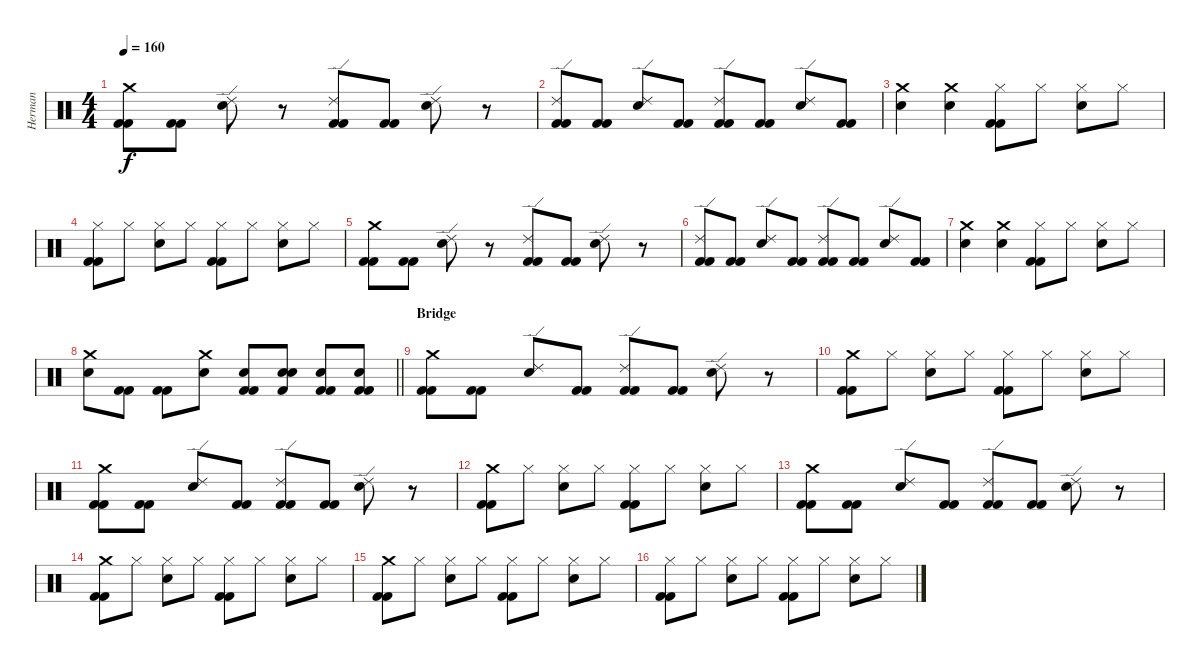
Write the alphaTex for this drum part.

\track ("Herman" "Herman") {instrument percussion}
\staff {score}
\articulation defaults
\ts (4 4)
\tempo 160
\clef neutral
\ks c
("Crash medium (hit)" "Kick (hit) 2" "Kick (hit) 2").8{dy f} ("Kick (hit) 2" "Kick (hit) 2").8 ("Electric Snare (hit)" "Ride (edge) 2").8 r.8 ("Ride (edge) 2" "Kick (hit) 2" "Kick (hit) 2").8 ("Kick (hit) 2" "Kick (hit) 2").8 ("Electric Snare (hit)" "Ride (edge) 2").8 r.8 |
("Kick (hit) 2" "Kick (hit) 2" "Ride (edge) 2").8 ("Kick (hit) 2" "Kick (hit) 2").8 ("Electric Snare (hit)" "Ride (edge) 2").8 ("Kick (hit) 2" "Kick (hit) 2").8 ("Kick (hit) 2" "Kick (hit) 2" "Ride (edge) 2").8 ("Kick (hit) 2" "Kick (hit) 2").8 ("Electric Snare (hit)" "Ride (edge) 2").8 ("Kick (hit) 2" "Kick (hit) 2").8 |
("Crash medium (hit)" "Electric Snare (hit)").4 ("Crash medium (hit)" "Electric Snare (hit)").4 ("Hi-Hat (closed)" "Kick (hit) 2" "Kick (hit) 2").8 "Hi-Hat (closed)".8 ("Electric Snare (hit)" "Hi-Hat (closed)").8 "Hi-Hat (closed)".8 |
("Kick (hit) 2" "Kick (hit) 2" "Hi-Hat (closed)").8 "Hi-Hat (closed)".8 ("Hi-Hat (closed)" "Electric Snare (hit)").8 "Hi-Hat (closed)".8 ("Hi-Hat (closed)" "Kick (hit) 2" "Kick (hit) 2").8 "Hi-Hat (closed)".8 ("Electric Snare (hit)" "Hi-Hat (closed)").8 "Hi-Hat (closed)".8 |
("Crash medium (hit)" "Kick (hit) 2" "Kick (hit) 2").8 ("Kick (hit) 2" "Kick (hit) 2").8 ("Electric Snare (hit)" "Ride (edge) 2").8 r.8 ("Ride (edge) 2" "Kick (hit) 2" "Kick (hit) 2").8 ("Kick (hit) 2" "Kick (hit) 2").8 ("Electric Snare (hit)" "Ride (edge) 2").8 r.8 |
("Kick (hit) 2" "Kick (hit) 2" "Ride (edge) 2").8 ("Kick (hit) 2" "Kick (hit) 2").8 ("Electric Snare (hit)" "Ride (edge) 2").8 ("Kick (hit) 2" "Kick (hit) 2").8 ("Kick (hit) 2" "Kick (hit) 2" "Ride (edge) 2").8 ("Kick (hit) 2" "Kick (hit) 2").8 ("Electric Snare (hit)" "Ride (edge) 2").8 ("Kick (hit) 2" "Kick (hit) 2").8 |
("Crash medium (hit)" "Electric Snare (hit)").4 ("Crash medium (hit)" "Electric Snare (hit)").4 ("Hi-Hat (closed)" "Kick (hit) 2" "Kick (hit) 2").8 "Hi-Hat (closed)".8 ("Electric Snare (hit)" "Hi-Hat (closed)").8 "Hi-Hat (closed)".8 |
\barLineRight lightlight
("Crash medium (hit)" "Electric Snare (hit)").8 ("Kick (hit) 2" "Kick (hit) 2").8 ("Kick (hit) 2" "Kick (hit) 2").8 ("Crash medium (hit)" "Electric Snare (hit)").8 ("Kick (hit) 2" "Electric Snare (hit)" "Kick (hit) 2").8 ("Electric Snare (hit)" "Electric Snare (hit)" "Kick (hit) 2").8 ("Kick (hit) 2" "Kick (hit) 2" "Electric Snare (hit)").8 ("Electric Snare (hit)" "Kick (hit) 2" "Kick (hit) 2").8 |
\section ("" "Bridge")
("Crash medium (hit)" "Kick (hit) 2" "Kick (hit) 2").8 ("Kick (hit) 2" "Kick (hit) 2").8 ("Ride (edge) 2" "Electric Snare (hit)").8 ("Kick (hit) 2" "Kick (hit) 2").8 ("Ride (edge) 2" "Kick (hit) 2" "Kick (hit) 2").8 ("Kick (hit) 2" "Kick (hit) 2").8 ("Ride (edge) 2" "Electric Snare (hit)").8 r.8 |
("Kick (hit) 2" "Kick (hit) 2" "Crash medium (hit)").8 "Hi-Hat (closed)".8 ("Hi-Hat (closed)" "Electric Snare (hit)").8 "Hi-Hat (closed)".8 ("Kick (hit) 2" "Kick (hit) 2" "Hi-Hat (closed)").8 "Hi-Hat (closed)".8 ("Hi-Hat (closed)" "Electric Snare (hit)").8 "Hi-Hat (closed)".8 |
("Crash medium (hit)" "Kick (hit) 2" "Kick (hit) 2").8 ("Kick (hit) 2" "Kick (hit) 2").8 ("Ride (edge) 2" "Electric Snare (hit)").8 ("Kick (hit) 2" "Kick (hit) 2").8 ("Ride (edge) 2" "Kick (hit) 2" "Kick (hit) 2").8 ("Kick (hit) 2" "Kick (hit) 2").8 ("Ride (edge) 2" "Electric Snare (hit)").8 r.8 |
("Kick (hit) 2" "Kick (hit) 2" "Crash medium (hit)").8 "Hi-Hat (closed)".8 ("Hi-Hat (closed)" "Electric Snare (hit)").8 "Hi-Hat (closed)".8 ("Kick (hit) 2" "Kick (hit) 2" "Hi-Hat (closed)").8 "Hi-Hat (closed)".8 ("Hi-Hat (closed)" "Electric Snare (hit)").8 "Hi-Hat (closed)".8 |
("Crash medium (hit)" "Kick (hit) 2" "Kick (hit) 2").8 ("Kick (hit) 2" "Kick (hit) 2").8 ("Ride (edge) 2" "Electric Snare (hit)").8 ("Kick (hit) 2" "Kick (hit) 2").8 ("Ride (edge) 2" "Kick (hit) 2" "Kick (hit) 2").8 ("Kick (hit) 2" "Kick (hit) 2").8 ("Ride (edge) 2" "Electric Snare (hit)").8 r.8 |
("Kick (hit) 2" "Kick (hit) 2" "Crash medium (hit)").8 "Hi-Hat (closed)".8 ("Hi-Hat (closed)" "Electric Snare (hit)").8 "Hi-Hat (closed)".8 ("Kick (hit) 2" "Kick (hit) 2" "Hi-Hat (closed)").8 "Hi-Hat (closed)".8 ("Hi-Hat (closed)" "Electric Snare (hit)").8 "Hi-Hat (closed)".8 |
("Crash medium (hit)" "Kick (hit) 2" "Kick (hit) 2").8 "Hi-Hat (closed)".8 ("Electric Snare (hit)" "Hi-Hat (closed)").8 "Hi-Hat (closed)".8 ("Hi-Hat (closed)" "Kick (hit) 2" "Kick (hit) 2").8 "Hi-Hat (closed)".8 ("Electric Snare (hit)" "Hi-Hat (closed)").8 "Hi-Hat (closed)".8 |
("Hi-Hat (closed)" "Kick (hit) 2" "Kick (hit) 2").8 "Hi-Hat (closed)".8 ("Electric Snare (hit)" "Hi-Hat (closed)").8 "Hi-Hat (closed)".8 ("Hi-Hat (closed)" "Kick (hit) 2" "Kick (hit) 2").8 "Hi-Hat (closed)".8 ("Electric Snare (hit)" "Hi-Hat (closed)").8 "Hi-Hat (closed)".8
